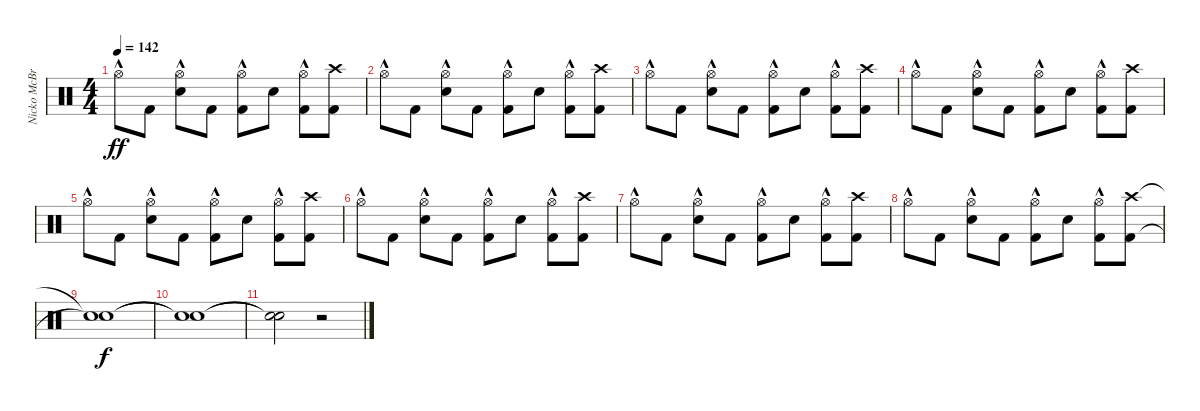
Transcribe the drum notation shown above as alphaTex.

\track ("Nicko McBrain" "Nicko McBr") {instrument percussion}
\staff {score}
\articulation defaults
\ts (4 4)
\tempo 142
\clef neutral
\ks c "Hi-Hat (open)"{hac}.8{dy ff} "Kick (hit) 2".8
("Snare (hit) 2" "Hi-Hat (open)"{hac}).8 "Kick (hit) 2".8 ("Kick (hit) 2" "Hi-Hat (open)"{hac}).8 "Snare (hit) 2".8 ("Kick (hit) 2" "Hi-Hat (open)"{hac}).8 ("Kick (hit) 2" "Crash high (hit)").8 |
"Hi-Hat (open)"{hac}.8 "Kick (hit) 2".8 ("Snare (hit) 2" "Hi-Hat (open)"{hac}).8 "Kick (hit) 2".8 ("Kick (hit) 2" "Hi-Hat (open)"{hac}).8 "Snare (hit) 2".8 ("Kick (hit) 2" "Hi-Hat (open)"{hac}).8 ("Kick (hit) 2" "Crash high (hit)").8 |
"Hi-Hat (open)"{hac}.8 "Kick (hit) 2".8 ("Snare (hit) 2" "Hi-Hat (open)"{hac}).8 "Kick (hit) 2".8 ("Kick (hit) 2" "Hi-Hat (open)"{hac}).8 "Snare (hit) 2".8 ("Kick (hit) 2" "Hi-Hat (open)"{hac}).8 ("Kick (hit) 2" "Crash high (hit)").8 |
"Hi-Hat (open)"{hac}.8 "Kick (hit) 2".8 ("Snare (hit) 2" "Hi-Hat (open)"{hac}).8 "Kick (hit) 2".8 ("Kick (hit) 2" "Hi-Hat (open)"{hac}).8 "Snare (hit) 2".8 ("Kick (hit) 2" "Hi-Hat (open)"{hac}).8 ("Kick (hit) 2" "Crash high (hit)").8 |
"Hi-Hat (open)"{hac}.8 "Kick (hit) 2".8 ("Snare (hit) 2" "Hi-Hat (open)"{hac}).8 "Kick (hit) 2".8 ("Kick (hit) 2" "Hi-Hat (open)"{hac}).8 "Snare (hit) 2".8 ("Kick (hit) 2" "Hi-Hat (open)"{hac}).8 ("Kick (hit) 2" "Crash high (hit)").8 |
"Hi-Hat (open)"{hac}.8 "Kick (hit) 2".8 ("Snare (hit) 2" "Hi-Hat (open)"{hac}).8 "Kick (hit) 2".8 ("Kick (hit) 2" "Hi-Hat (open)"{hac}).8 "Snare (hit) 2".8 ("Kick (hit) 2" "Hi-Hat (open)"{hac}).8 ("Kick (hit) 2" "Crash high (hit)").8 |
"Hi-Hat (open)"{hac}.8 "Kick (hit) 2".8 ("Snare (hit) 2" "Hi-Hat (open)"{hac}).8 "Kick (hit) 2".8 ("Kick (hit) 2" "Hi-Hat (open)"{hac}).8 "Snare (hit) 2".8 ("Kick (hit) 2" "Hi-Hat (open)"{hac}).8 ("Kick (hit) 2" "Crash high (hit)").8 |
"Hi-Hat (open)"{hac}.8 "Kick (hit) 2".8 ("Snare (hit) 2" "Hi-Hat (open)"{hac}).8 "Kick (hit) 2".8 ("Kick (hit) 2" "Hi-Hat (open)"{hac}).8 "Snare (hit) 2".8 ("Kick (hit) 2" "Hi-Hat (open)"{hac}).8 ("Kick (hit) 2" "Crash high (hit)").8 |
("Snare (hit)"{t} "Snare (hit)"{t}).1{dy f} |
("Snare (hit)"{t} "Snare (hit)"{t}).1 |
("Snare (hit)"{t} "Snare (hit)"{t}).2 r.2
